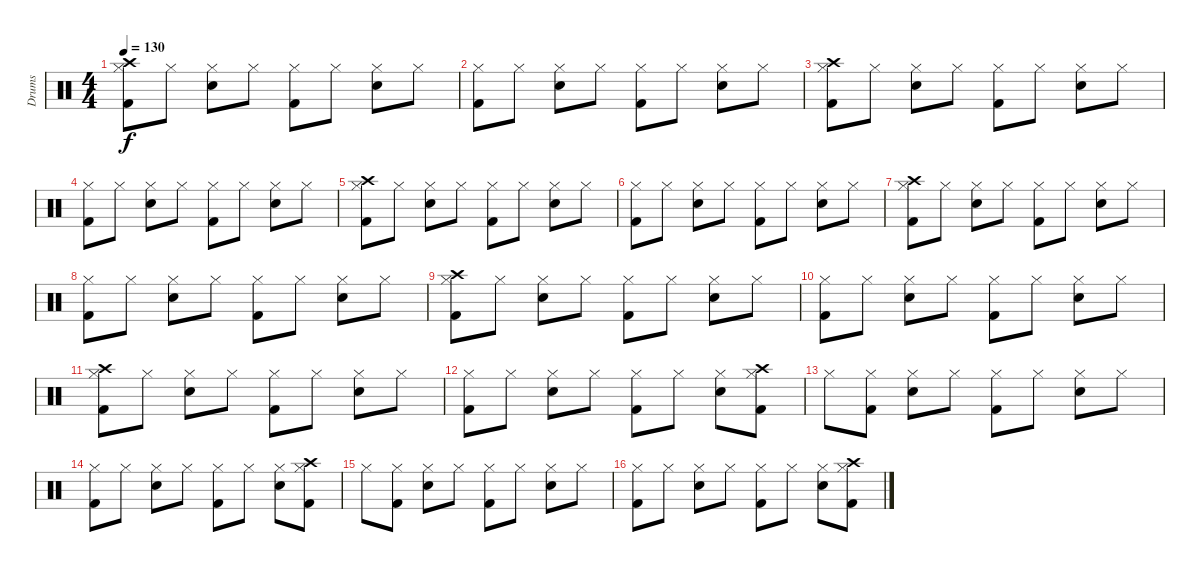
\track ("Drums" "Drums") {instrument percussion}
\staff {score}
\articulation defaults
\ts (4 4)
\tempo 130
\clef neutral
\ks c
("Kick (hit) 2" "Hi-Hat (closed)" "Crash high (hit)").8{dy f} "Hi-Hat (closed)".8 ("Snare (hit) 2" "Hi-Hat (closed)").8 "Hi-Hat (closed)".8 ("Kick (hit) 2" "Hi-Hat (closed)").8 "Hi-Hat (closed)".8 ("Snare (hit) 2" "Hi-Hat (closed)").8 "Hi-Hat (closed)".8 |
("Kick (hit) 2" "Hi-Hat (closed)").8 "Hi-Hat (closed)".8 ("Snare (hit) 2" "Hi-Hat (closed)").8 "Hi-Hat (closed)".8 ("Kick (hit) 2" "Hi-Hat (closed)").8 "Hi-Hat (closed)".8 ("Snare (hit) 2" "Hi-Hat (closed)").8 "Hi-Hat (closed)".8 |
("Kick (hit) 2" "Hi-Hat (closed)" "Crash high (hit)").8 "Hi-Hat (closed)".8 ("Snare (hit) 2" "Hi-Hat (closed)").8 "Hi-Hat (closed)".8 ("Kick (hit) 2" "Hi-Hat (closed)").8 "Hi-Hat (closed)".8 ("Snare (hit) 2" "Hi-Hat (closed)").8 "Hi-Hat (closed)".8 |
("Kick (hit) 2" "Hi-Hat (closed)").8 "Hi-Hat (closed)".8 ("Snare (hit) 2" "Hi-Hat (closed)").8 "Hi-Hat (closed)".8 ("Kick (hit) 2" "Hi-Hat (closed)").8 "Hi-Hat (closed)".8 ("Snare (hit) 2" "Hi-Hat (closed)").8 "Hi-Hat (closed)".8 |
("Kick (hit) 2" "Hi-Hat (closed)" "Crash high (hit)").8 "Hi-Hat (closed)".8 ("Snare (hit) 2" "Hi-Hat (closed)").8 "Hi-Hat (closed)".8 ("Kick (hit) 2" "Hi-Hat (closed)").8 "Hi-Hat (closed)".8 ("Snare (hit) 2" "Hi-Hat (closed)").8 "Hi-Hat (closed)".8 |
("Kick (hit) 2" "Hi-Hat (closed)").8 "Hi-Hat (closed)".8 ("Snare (hit) 2" "Hi-Hat (closed)").8 "Hi-Hat (closed)".8 ("Kick (hit) 2" "Hi-Hat (closed)").8 "Hi-Hat (closed)".8 ("Snare (hit) 2" "Hi-Hat (closed)").8 "Hi-Hat (closed)".8 |
("Kick (hit) 2" "Hi-Hat (closed)" "Crash high (hit)").8 "Hi-Hat (closed)".8 ("Snare (hit) 2" "Hi-Hat (closed)").8 "Hi-Hat (closed)".8 ("Kick (hit) 2" "Hi-Hat (closed)").8 "Hi-Hat (closed)".8 ("Snare (hit) 2" "Hi-Hat (closed)").8 "Hi-Hat (closed)".8 |
("Kick (hit) 2" "Hi-Hat (closed)").8 "Hi-Hat (closed)".8 ("Snare (hit) 2" "Hi-Hat (closed)").8 "Hi-Hat (closed)".8 ("Kick (hit) 2" "Hi-Hat (closed)").8 "Hi-Hat (closed)".8 ("Snare (hit) 2" "Hi-Hat (closed)").8 "Hi-Hat (closed)".8 |
("Kick (hit) 2" "Hi-Hat (closed)" "Crash high (hit)").8 "Hi-Hat (closed)".8 ("Snare (hit) 2" "Hi-Hat (closed)").8 "Hi-Hat (closed)".8 ("Kick (hit) 2" "Hi-Hat (closed)").8 "Hi-Hat (closed)".8 ("Snare (hit) 2" "Hi-Hat (closed)").8 "Hi-Hat (closed)".8 |
("Kick (hit) 2" "Hi-Hat (closed)").8 "Hi-Hat (closed)".8 ("Snare (hit) 2" "Hi-Hat (closed)").8 "Hi-Hat (closed)".8 ("Kick (hit) 2" "Hi-Hat (closed)").8 "Hi-Hat (closed)".8 ("Snare (hit) 2" "Hi-Hat (closed)").8 "Hi-Hat (closed)".8 |
("Kick (hit) 2" "Hi-Hat (closed)" "Crash high (hit)").8 "Hi-Hat (closed)".8 ("Snare (hit) 2" "Hi-Hat (closed)").8 "Hi-Hat (closed)".8 ("Kick (hit) 2" "Hi-Hat (closed)").8 "Hi-Hat (closed)".8 ("Snare (hit) 2" "Hi-Hat (closed)").8 "Hi-Hat (closed)".8 |
("Kick (hit) 2" "Hi-Hat (closed)").8 "Hi-Hat (closed)".8 ("Snare (hit) 2" "Hi-Hat (closed)").8 "Hi-Hat (closed)".8 ("Kick (hit) 2" "Hi-Hat (closed)").8 "Hi-Hat (closed)".8 ("Snare (hit) 2" "Hi-Hat (closed)").8 ("Kick (hit) 2" "Hi-Hat (closed)" "Crash high (hit)").8 |
"Hi-Hat (closed)".8 ("Kick (hit) 2" "Hi-Hat (closed)").8 ("Snare (hit) 2" "Hi-Hat (closed)").8 "Hi-Hat (closed)".8 ("Kick (hit) 2" "Hi-Hat (closed)").8 "Hi-Hat (closed)".8 ("Snare (hit) 2" "Hi-Hat (closed)").8 "Hi-Hat (closed)".8 |
("Kick (hit) 2" "Hi-Hat (closed)").8 "Hi-Hat (closed)".8 ("Snare (hit) 2" "Hi-Hat (closed)").8 "Hi-Hat (closed)".8 ("Kick (hit) 2" "Hi-Hat (closed)").8 "Hi-Hat (closed)".8 ("Snare (hit) 2" "Hi-Hat (closed)").8 ("Kick (hit) 2" "Hi-Hat (closed)" "Crash high (hit)").8 |
"Hi-Hat (closed)".8 ("Kick (hit) 2" "Hi-Hat (closed)").8 ("Snare (hit) 2" "Hi-Hat (closed)").8 "Hi-Hat (closed)".8 ("Kick (hit) 2" "Hi-Hat (closed)").8 "Hi-Hat (closed)".8 ("Snare (hit) 2" "Hi-Hat (closed)").8 "Hi-Hat (closed)".8 |
("Kick (hit) 2" "Hi-Hat (closed)").8 "Hi-Hat (closed)".8 ("Snare (hit) 2" "Hi-Hat (closed)").8 "Hi-Hat (closed)".8 ("Kick (hit) 2" "Hi-Hat (closed)").8 "Hi-Hat (closed)".8 ("Snare (hit) 2" "Hi-Hat (closed)").8 ("Kick (hit) 2" "Hi-Hat (closed)" "Crash high (hit)").8
